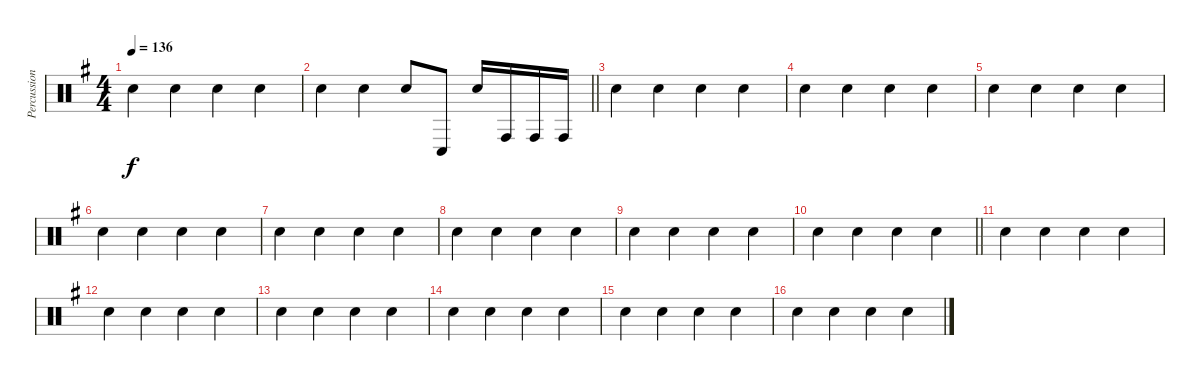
\track ("Percussions" "Percussion") {instrument percussion}
\staff {score}
\articulation defaults
\ts (4 4)
\tempo 136
\clef neutral
\ks g "Hand Clap (hit)".4{dy f} "Hand Clap (hit)".4 "Hand Clap (hit)".4 "Hand Clap (hit)".4
|
\barLineRight lightlight "Hand Clap (hit)".4 "Hand Clap (hit)".4 "Hand Clap (hit)".8 "Conga low (hit)".8 "Hand Clap (hit)".16 "Conga high (hit)".16 "Conga high (hit)".16 "Conga high (hit)".16
|
"Hand Clap (hit)".4 "Hand Clap (hit)".4 "Hand Clap (hit)".4 "Hand Clap (hit)".4 |
"Hand Clap (hit)".4 "Hand Clap (hit)".4 "Hand Clap (hit)".4 "Hand Clap (hit)".4 |
"Hand Clap (hit)".4 "Hand Clap (hit)".4 "Hand Clap (hit)".4 "Hand Clap (hit)".4 |
"Hand Clap (hit)".4 "Hand Clap (hit)".4 "Hand Clap (hit)".4 "Hand Clap (hit)".4 |
"Hand Clap (hit)".4 "Hand Clap (hit)".4 "Hand Clap (hit)".4 "Hand Clap (hit)".4 |
"Hand Clap (hit)".4 "Hand Clap (hit)".4 "Hand Clap (hit)".4 "Hand Clap (hit)".4 |
"Hand Clap (hit)".4 "Hand Clap (hit)".4 "Hand Clap (hit)".4 "Hand Clap (hit)".4 |
\barLineRight lightlight "Hand Clap (hit)".4 "Hand Clap (hit)".4 "Hand Clap (hit)".4 "Hand Clap (hit)".4
|
"Hand Clap (hit)".4 "Hand Clap (hit)".4 "Hand Clap (hit)".4 "Hand Clap (hit)".4 |
"Hand Clap (hit)".4 "Hand Clap (hit)".4 "Hand Clap (hit)".4 "Hand Clap (hit)".4 |
"Hand Clap (hit)".4 "Hand Clap (hit)".4 "Hand Clap (hit)".4 "Hand Clap (hit)".4 |
"Hand Clap (hit)".4 "Hand Clap (hit)".4 "Hand Clap (hit)".4 "Hand Clap (hit)".4 |
"Hand Clap (hit)".4 "Hand Clap (hit)".4 "Hand Clap (hit)".4 "Hand Clap (hit)".4 |
"Hand Clap (hit)".4 "Hand Clap (hit)".4 "Hand Clap (hit)".4 "Hand Clap (hit)".4
